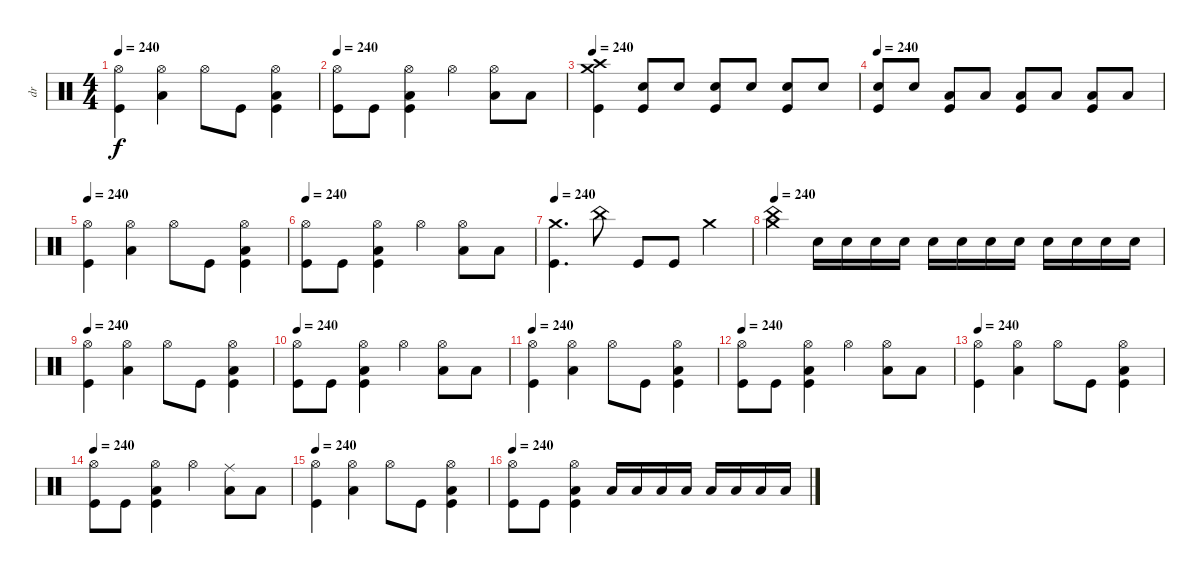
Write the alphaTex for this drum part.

\track ("dr" "dr") {instrument percussion}
\staff {score}
\articulation defaults
\ts (4 4)
\tempo 240
\clef neutral
\ks c
("Hi-Hat (open)" "Kick (hit)").4{dy f} ("Hi-Hat (open)" "Low Floor Tom (hit)").4 "Hi-Hat (open)".8 "Kick (hit)".8 ("Hi-Hat (open)" "Low Floor Tom (hit)" "Kick (hit)").4 |
\tempo 240
("Hi-Hat (open)" "Kick (hit)").8 "Kick (hit)".8 ("Hi-Hat (open)" "Low Floor Tom (hit)" "Kick (hit)").4 "Hi-Hat (open)".4 ("Hi-Hat (open)" "Low Floor Tom (hit)").8 "Low Floor Tom (hit)".8 |
\tempo 240
("Crash high (hit)" "Crash medium (hit)" "Kick (hit)").4 ("Electric Snare (hit)" "Kick (hit)").8 "Electric Snare (hit)".8 ("Electric Snare (hit)" "Kick (hit)").8 "Electric Snare (hit)".8 ("Snare (hit) 2" "Kick (hit)").8 "Snare (hit) 2".8 |
\tempo 240
("Snare (hit) 2" "Kick (hit)").8 "Snare (hit) 2".8 ("Low Floor Tom (hit)" "Kick (hit)").8 "Low Floor Tom (hit)".8 ("Low Floor Tom (hit)" "Kick (hit)").8 "Low Floor Tom (hit)".8 ("Low Floor Tom (hit)" "Kick (hit)").8 "Low Floor Tom (hit)".8 |
\tempo 240
("Hi-Hat (open)" "Kick (hit)").4 ("Hi-Hat (open)" "Low Floor Tom (hit)").4 "Hi-Hat (open)".8 "Kick (hit)".8 ("Hi-Hat (open)" "Low Floor Tom (hit)" "Kick (hit)").4 |
\tempo 240
("Hi-Hat (open)" "Kick (hit)").8 "Kick (hit)".8 ("Hi-Hat (open)" "Low Floor Tom (hit)" "Kick (hit)").4 "Hi-Hat (open)".4 ("Hi-Hat (open)" "Low Floor Tom (hit)").8 "Low Floor Tom (hit)".8 |
\tempo 240
("Crash medium (hit)" "Kick (hit)").4{d} "China (hit)".8 "Kick (hit)".8 "Kick (hit)".8 "Crash medium (hit)".4 |
\tempo 240
("Crash medium (hit)" "China (hit)").4 "Electric Snare (hit)".16 "Electric Snare (hit)".16 "Electric Snare (hit)".16 "Electric Snare (hit)".16 "Electric Snare (hit)".16 "Electric Snare (hit)".16 "Electric Snare (hit)".16 "Electric Snare (hit)".16 "Snare (hit) 2".16 "Snare (hit) 2".16 "Snare (hit) 2".16 "Snare (hit) 2".16 |
\tempo 240
("Hi-Hat (open)" "Kick (hit)").4 ("Hi-Hat (open)" "Low Floor Tom (hit)").4 "Hi-Hat (open)".8 "Kick (hit)".8 ("Hi-Hat (open)" "Low Floor Tom (hit)" "Kick (hit)").4 |
\tempo 240
("Hi-Hat (open)" "Kick (hit)").8 "Kick (hit)".8 ("Hi-Hat (open)" "Low Floor Tom (hit)" "Kick (hit)").4 "Hi-Hat (open)".4 ("Hi-Hat (open)" "Low Floor Tom (hit)").8 "Low Floor Tom (hit)".8 |
\tempo 240
("Hi-Hat (open)" "Kick (hit)").4 ("Hi-Hat (open)" "Low Floor Tom (hit)").4 "Hi-Hat (open)".8 "Kick (hit)".8 ("Hi-Hat (open)" "Low Floor Tom (hit)" "Kick (hit)").4 |
\tempo 240
("Hi-Hat (open)" "Kick (hit)").8 "Kick (hit)".8 ("Hi-Hat (open)" "Low Floor Tom (hit)" "Kick (hit)").4 "Hi-Hat (open)".4 ("Hi-Hat (open)" "Low Floor Tom (hit)").8 "Low Floor Tom (hit)".8 |
\tempo 240
("Hi-Hat (open)" "Kick (hit)").4 ("Hi-Hat (open)" "Low Floor Tom (hit)").4 "Hi-Hat (open)".8 "Kick (hit)".8 ("Hi-Hat (open)" "Low Floor Tom (hit)" "Kick (hit)").4 |
\tempo 240
("Hi-Hat (open)" "Kick (hit)").8 "Kick (hit)".8 ("Hi-Hat (open)" "Low Floor Tom (hit)" "Kick (hit)").4 "Hi-Hat (open)".4 ("Ride (middle)" "Low Floor Tom (hit)").8 "Low Floor Tom (hit)".8 |
\tempo 240
("Hi-Hat (open)" "Kick (hit)").4 ("Hi-Hat (open)" "Low Floor Tom (hit)").4 "Hi-Hat (open)".8 "Kick (hit)".8 ("Hi-Hat (open)" "Low Floor Tom (hit)" "Kick (hit)").4 |
\tempo 240
("Hi-Hat (open)" "Kick (hit)").8 "Kick (hit)".8 ("Hi-Hat (open)" "Low Floor Tom (hit)" "Kick (hit)").4 "Low Floor Tom (hit)".16 "Low Floor Tom (hit)".16 "Low Floor Tom (hit)".16 "Low Floor Tom (hit)".16 "Low Floor Tom (hit)".16 "Low Floor Tom (hit)".16 "Low Floor Tom (hit)".16 "Low Floor Tom (hit)".16
